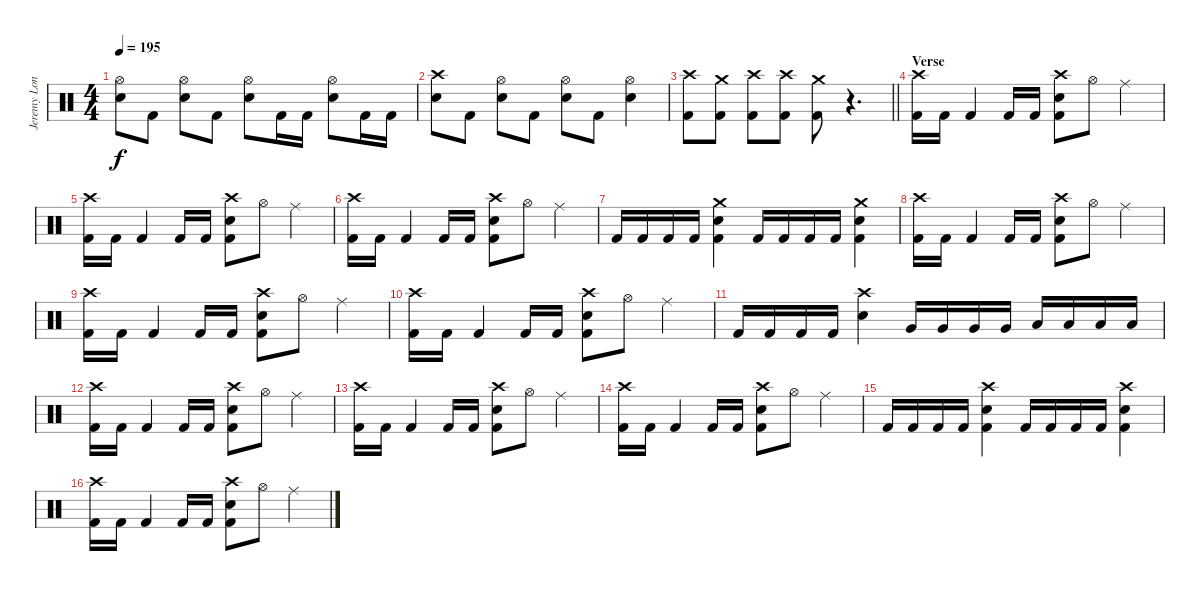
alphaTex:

\track ("Jeremy London" "Jeremy Lon") {instrument percussion}
\staff {score}
\articulation defaults
\ts (4 4)
\tempo 195
\clef neutral
\ks c
("Hi-Hat (open)" "Electric Snare (hit)").8{dy f} "Kick (hit) 2".8 ("Hi-Hat (open)" "Electric Snare (hit)").8 "Kick (hit) 2".8 ("Hi-Hat (open)" "Electric Snare (hit)").8 "Kick (hit) 2".16 "Kick (hit) 2".16 ("Hi-Hat (open)" "Electric Snare (hit)").8 "Kick (hit) 2".16 "Kick (hit) 2".16 |
("Crash high (hit)" "Electric Snare (hit)").8 "Kick (hit) 2".8 ("Hi-Hat (open)" "Electric Snare (hit)").8 "Kick (hit) 2".8 ("Hi-Hat (open)" "Electric Snare (hit)").8 "Kick (hit) 2".8 ("Hi-Hat (open)" "Electric Snare (hit)").4 |
\barLineRight lightlight
("Crash high (hit)" "Kick (hit) 2").8 ("Crash medium (hit)" "Kick (hit) 2").8 ("Crash high (hit)" "Kick (hit) 2").8 ("Crash high (hit)" "Kick (hit) 2").8 ("Crash medium (hit)" "Kick (hit) 2").8 r.4{d} |
\section ("" "Verse")
("Crash high (hit)" "Kick (hit) 2").16 "Kick (hit) 2".16 "Kick (hit) 2".4 "Kick (hit) 2".16 "Kick (hit) 2".16 ("Crash high (hit)" "Electric Snare (hit)" "Kick (hit) 2").8 "Hi-Hat (open)".8 "Ride (middle)".4 |
("Crash high (hit)" "Kick (hit) 2").16 "Kick (hit) 2".16 "Kick (hit) 2".4 "Kick (hit) 2".16 "Kick (hit) 2".16 ("Crash high (hit)" "Electric Snare (hit)" "Kick (hit) 2").8 "Hi-Hat (open)".8 "Ride (middle)".4 |
("Crash high (hit)" "Kick (hit) 2").16 "Kick (hit) 2".16 "Kick (hit) 2".4 "Kick (hit) 2".16 "Kick (hit) 2".16 ("Crash high (hit)" "Electric Snare (hit)" "Kick (hit) 2").8 "Hi-Hat (open)".8 "Ride (middle)".4 |
"Kick (hit) 2".16 "Kick (hit) 2".16 "Kick (hit) 2".16 "Kick (hit) 2".16 ("Crash medium (hit)" "Electric Snare (hit)" "Kick (hit) 2").4 "Kick (hit) 2".16 "Kick (hit) 2".16 "Kick (hit) 2".16 "Kick (hit) 2".16 ("Crash medium (hit)" "Electric Snare (hit)" "Kick (hit) 2").4 |
("Crash high (hit)" "Kick (hit) 2").16 "Kick (hit) 2".16 "Kick (hit) 2".4 "Kick (hit) 2".16 "Kick (hit) 2".16 ("Crash high (hit)" "Electric Snare (hit)" "Kick (hit) 2").8 "Hi-Hat (open)".8 "Ride (middle)".4 |
("Crash high (hit)" "Kick (hit) 2").16 "Kick (hit) 2".16 "Kick (hit) 2".4 "Kick (hit) 2".16 "Kick (hit) 2".16 ("Crash high (hit)" "Electric Snare (hit)" "Kick (hit) 2").8 "Hi-Hat (open)".8 "Ride (middle)".4 |
("Crash high (hit)" "Kick (hit) 2").16 "Kick (hit) 2".16 "Kick (hit) 2".4 "Kick (hit) 2".16 "Kick (hit) 2".16 ("Crash high (hit)" "Electric Snare (hit)" "Kick (hit) 2").8 "Hi-Hat (open)".8 "Ride (middle)".4 |
"Kick (hit) 2".16 "Kick (hit) 2".16 "Kick (hit) 2".16 "Kick (hit) 2".16 ("Crash high (hit)" "Electric Snare (hit)").4 "Very Low Tom (hit)".16 "Very Low Tom (hit)".16 "Very Low Tom (hit)".16 "Very Low Tom (hit)".16 "Low Floor Tom (hit)".16 "Low Floor Tom (hit)".16 "Low Floor Tom (hit)".16 "Low Floor Tom (hit)".16 |
("Crash high (hit)" "Kick (hit) 2").16 "Kick (hit) 2".16 "Kick (hit) 2".4 "Kick (hit) 2".16 "Kick (hit) 2".16 ("Crash high (hit)" "Electric Snare (hit)" "Kick (hit) 2").8 "Hi-Hat (open)".8 "Ride (middle)".4 |
("Crash high (hit)" "Kick (hit) 2").16 "Kick (hit) 2".16 "Kick (hit) 2".4 "Kick (hit) 2".16 "Kick (hit) 2".16 ("Crash high (hit)" "Electric Snare (hit)" "Kick (hit) 2").8 "Hi-Hat (open)".8 "Ride (middle)".4 |
("Crash high (hit)" "Kick (hit) 2").16 "Kick (hit) 2".16 "Kick (hit) 2".4 "Kick (hit) 2".16 "Kick (hit) 2".16 ("Crash high (hit)" "Electric Snare (hit)" "Kick (hit) 2").8 "Hi-Hat (open)".8 "Ride (middle)".4 |
"Kick (hit) 2".16 "Kick (hit) 2".16 "Kick (hit) 2".16 "Kick (hit) 2".16 ("Crash high (hit)" "Electric Snare (hit)" "Kick (hit) 2").4 "Kick (hit) 2".16 "Kick (hit) 2".16 "Kick (hit) 2".16 "Kick (hit) 2".16 ("Crash high (hit)" "Electric Snare (hit)" "Kick (hit) 2").4 |
("Crash high (hit)" "Kick (hit) 2").16 "Kick (hit) 2".16 "Kick (hit) 2".4 "Kick (hit) 2".16 "Kick (hit) 2".16 ("Crash high (hit)" "Electric Snare (hit)" "Kick (hit) 2").8 "Hi-Hat (open)".8 "Ride (middle)".4
